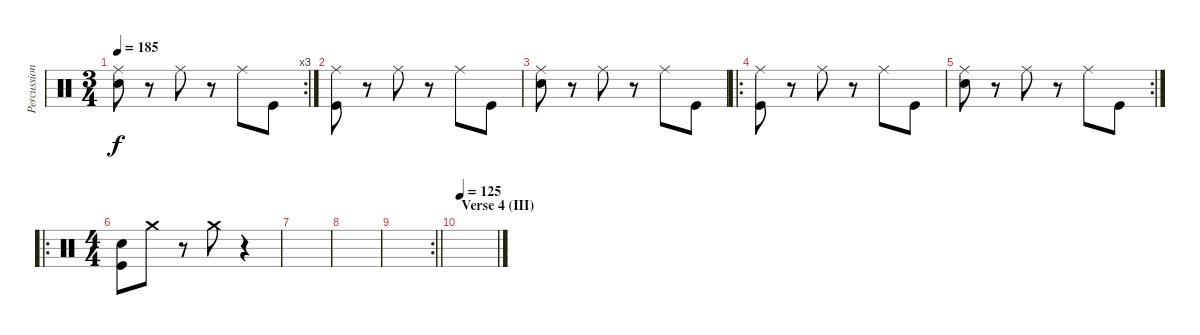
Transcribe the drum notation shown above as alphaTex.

\track ("Percussion" "Percussion") {instrument percussion}
\staff {score}
\articulation defaults
\rc 3
\ts (3 4)
\tempo 185
\clef neutral
\ks c
("Ride (middle)" "Snare (hit) 2").8{dy f} r.8 "Ride (middle)".8 r.8 "Ride (middle)".8 "Kick (hit)".8 |
("Ride (middle)" "Kick (hit)").8 r.8 "Ride (middle)".8 r.8 "Ride (middle)".8 "Kick (hit)".8 |
("Ride (middle)" "Snare (hit) 2").8 r.8 "Ride (middle)".8 r.8 "Ride (middle)".8 "Kick (hit)".8 |
\ro
("Ride (middle)" "Kick (hit)").8 r.8 "Ride (middle)".8 r.8 "Ride (middle)".8 "Kick (hit)".8 |
\rc 2
("Ride (middle)" "Snare (hit) 2").8 r.8 "Ride (middle)".8 r.8 "Ride (middle)".8 "Kick (hit)".8 |
\ro
\ts (4 4)
("Snare (hit) 2" "Kick (hit)").8 "Crash medium (hit)".8 r.8 "Crash medium (hit)".8 r.4 |
|
|
\rc 2
\barLineRight lightlight
|
\section ("" "Verse 4 (III)")
\tempo 125
